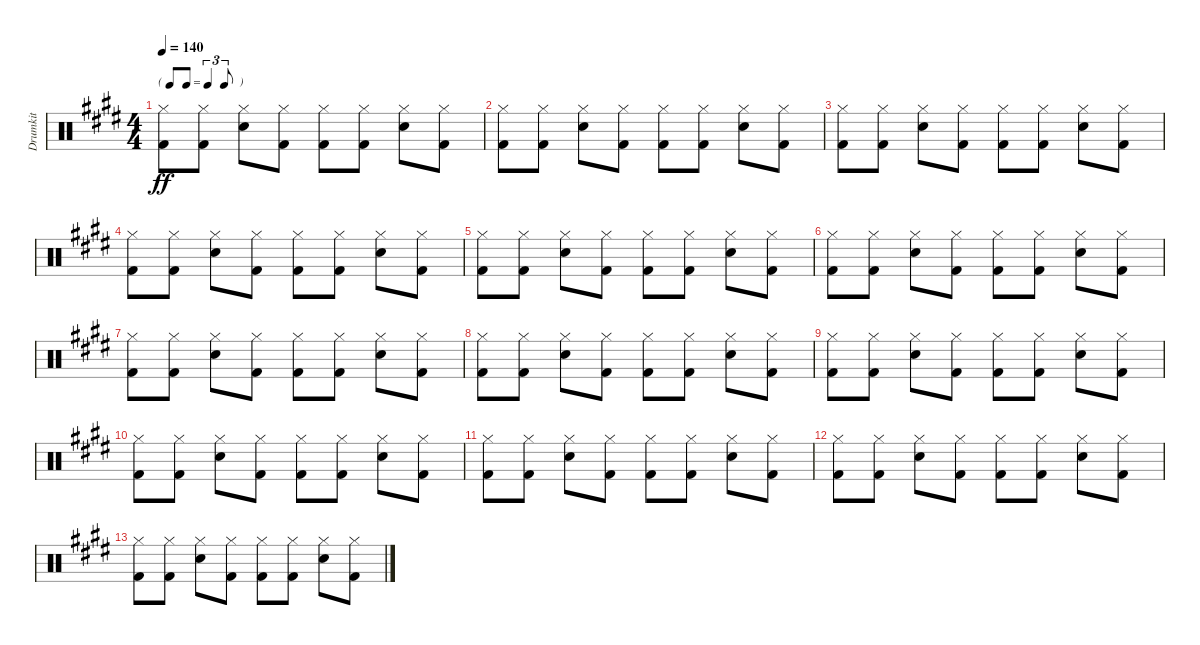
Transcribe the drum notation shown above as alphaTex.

\track ("Drumkit" "Drumkit") {instrument percussion}
\staff {score}
\articulation defaults
\ts (4 4)
\tf triplet8th
\tempo 140
\clef neutral
\ks e
("Hi-Hat (closed)" "Kick (hit) 2").8{dy ff} ("Hi-Hat (closed)" "Kick (hit) 2").8 ("Hi-Hat (closed)" "Snare (hit) 2").8 ("Hi-Hat (closed)" "Kick (hit) 2").8 ("Hi-Hat (closed)" "Kick (hit) 2").8 ("Hi-Hat (closed)" "Kick (hit) 2").8 ("Hi-Hat (closed)" "Snare (hit) 2").8 ("Hi-Hat (closed)" "Kick (hit) 2").8 |
("Hi-Hat (closed)" "Kick (hit) 2").8 ("Hi-Hat (closed)" "Kick (hit) 2").8 ("Hi-Hat (closed)" "Snare (hit) 2").8 ("Hi-Hat (closed)" "Kick (hit) 2").8 ("Hi-Hat (closed)" "Kick (hit) 2").8 ("Hi-Hat (closed)" "Kick (hit) 2").8 ("Hi-Hat (closed)" "Snare (hit) 2").8 ("Hi-Hat (closed)" "Kick (hit) 2").8 |
("Hi-Hat (closed)" "Kick (hit) 2").8 ("Hi-Hat (closed)" "Kick (hit) 2").8 ("Hi-Hat (closed)" "Snare (hit) 2").8 ("Hi-Hat (closed)" "Kick (hit) 2").8 ("Hi-Hat (closed)" "Kick (hit) 2").8 ("Hi-Hat (closed)" "Kick (hit) 2").8 ("Hi-Hat (closed)" "Snare (hit) 2").8 ("Hi-Hat (closed)" "Kick (hit) 2").8 |
("Hi-Hat (closed)" "Kick (hit) 2").8 ("Hi-Hat (closed)" "Kick (hit) 2").8 ("Hi-Hat (closed)" "Snare (hit) 2").8 ("Hi-Hat (closed)" "Kick (hit) 2").8 ("Hi-Hat (closed)" "Kick (hit) 2").8 ("Hi-Hat (closed)" "Kick (hit) 2").8 ("Hi-Hat (closed)" "Snare (hit) 2").8 ("Hi-Hat (closed)" "Kick (hit) 2").8 |
("Hi-Hat (closed)" "Kick (hit) 2").8 ("Hi-Hat (closed)" "Kick (hit) 2").8 ("Hi-Hat (closed)" "Snare (hit) 2").8 ("Hi-Hat (closed)" "Kick (hit) 2").8 ("Hi-Hat (closed)" "Kick (hit) 2").8 ("Hi-Hat (closed)" "Kick (hit) 2").8 ("Hi-Hat (closed)" "Snare (hit) 2").8 ("Hi-Hat (closed)" "Kick (hit) 2").8 |
("Hi-Hat (closed)" "Kick (hit) 2").8 ("Hi-Hat (closed)" "Kick (hit) 2").8 ("Hi-Hat (closed)" "Snare (hit) 2").8 ("Hi-Hat (closed)" "Kick (hit) 2").8 ("Hi-Hat (closed)" "Kick (hit) 2").8 ("Hi-Hat (closed)" "Kick (hit) 2").8 ("Hi-Hat (closed)" "Snare (hit) 2").8 ("Hi-Hat (closed)" "Kick (hit) 2").8 |
("Hi-Hat (closed)" "Kick (hit) 2").8 ("Hi-Hat (closed)" "Kick (hit) 2").8 ("Hi-Hat (closed)" "Snare (hit) 2").8 ("Hi-Hat (closed)" "Kick (hit) 2").8 ("Hi-Hat (closed)" "Kick (hit) 2").8 ("Hi-Hat (closed)" "Kick (hit) 2").8 ("Hi-Hat (closed)" "Snare (hit) 2").8 ("Hi-Hat (closed)" "Kick (hit) 2").8 |
("Hi-Hat (closed)" "Kick (hit) 2").8 ("Hi-Hat (closed)" "Kick (hit) 2").8 ("Hi-Hat (closed)" "Snare (hit) 2").8 ("Hi-Hat (closed)" "Kick (hit) 2").8 ("Hi-Hat (closed)" "Kick (hit) 2").8 ("Hi-Hat (closed)" "Kick (hit) 2").8 ("Hi-Hat (closed)" "Snare (hit) 2").8 ("Hi-Hat (closed)" "Kick (hit) 2").8 |
("Hi-Hat (closed)" "Kick (hit) 2").8 ("Hi-Hat (closed)" "Kick (hit) 2").8 ("Hi-Hat (closed)" "Snare (hit) 2").8 ("Hi-Hat (closed)" "Kick (hit) 2").8 ("Hi-Hat (closed)" "Kick (hit) 2").8 ("Hi-Hat (closed)" "Kick (hit) 2").8 ("Hi-Hat (closed)" "Snare (hit) 2").8 ("Hi-Hat (closed)" "Kick (hit) 2").8 |
("Hi-Hat (closed)" "Kick (hit) 2").8 ("Hi-Hat (closed)" "Kick (hit) 2").8 ("Hi-Hat (closed)" "Snare (hit) 2").8 ("Hi-Hat (closed)" "Kick (hit) 2").8 ("Hi-Hat (closed)" "Kick (hit) 2").8 ("Hi-Hat (closed)" "Kick (hit) 2").8 ("Hi-Hat (closed)" "Snare (hit) 2").8 ("Hi-Hat (closed)" "Kick (hit) 2").8 |
("Hi-Hat (closed)" "Kick (hit) 2").8 ("Hi-Hat (closed)" "Kick (hit) 2").8 ("Hi-Hat (closed)" "Snare (hit) 2").8 ("Hi-Hat (closed)" "Kick (hit) 2").8 ("Hi-Hat (closed)" "Kick (hit) 2").8 ("Hi-Hat (closed)" "Kick (hit) 2").8 ("Hi-Hat (closed)" "Snare (hit) 2").8 ("Hi-Hat (closed)" "Kick (hit) 2").8 |
("Hi-Hat (closed)" "Kick (hit) 2").8 ("Hi-Hat (closed)" "Kick (hit) 2").8 ("Hi-Hat (closed)" "Snare (hit) 2").8 ("Hi-Hat (closed)" "Kick (hit) 2").8 ("Hi-Hat (closed)" "Kick (hit) 2").8 ("Hi-Hat (closed)" "Kick (hit) 2").8 ("Hi-Hat (closed)" "Snare (hit) 2").8 ("Hi-Hat (closed)" "Kick (hit) 2").8 |
("Hi-Hat (closed)" "Kick (hit) 2").8 ("Hi-Hat (closed)" "Kick (hit) 2").8 ("Hi-Hat (closed)" "Snare (hit) 2").8 ("Hi-Hat (closed)" "Kick (hit) 2").8 ("Hi-Hat (closed)" "Kick (hit) 2").8 ("Hi-Hat (closed)" "Kick (hit) 2").8 ("Hi-Hat (closed)" "Snare (hit) 2").8 ("Hi-Hat (closed)" "Kick (hit) 2").8
